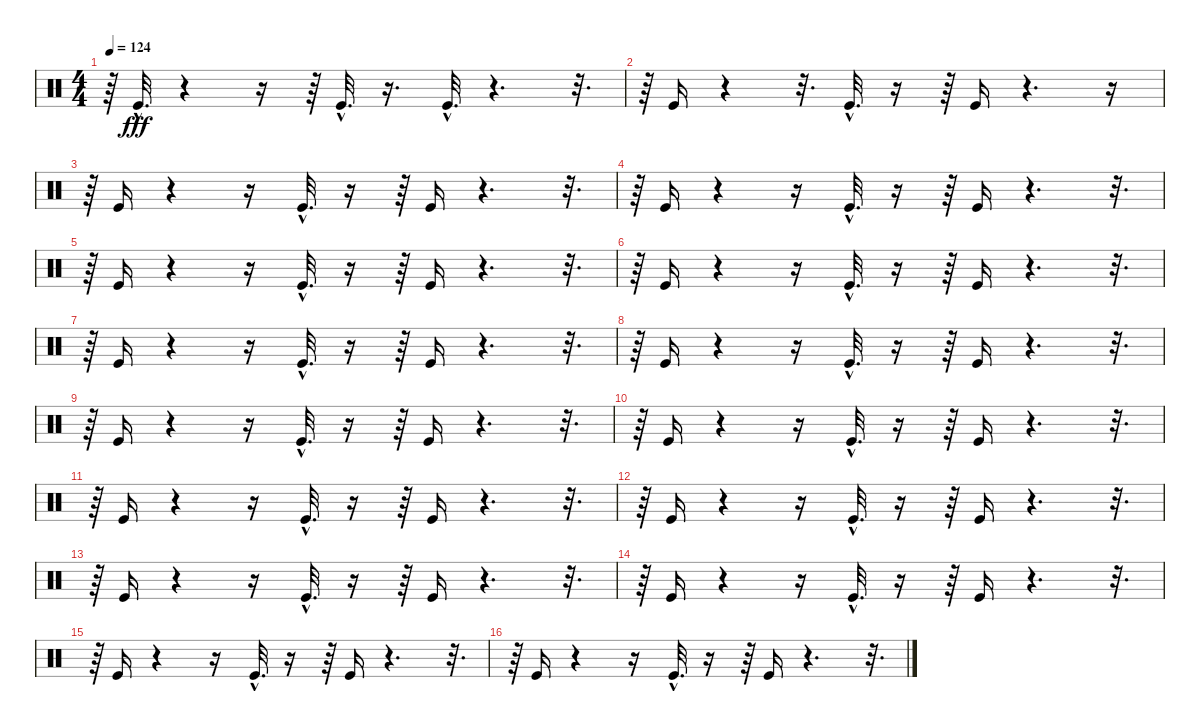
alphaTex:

\track "" {instrument percussion}
\staff {score}
\articulation defaults
\ts (4 4)
\tempo 124
\clef neutral
\ks c
r.64{dy fff} "Kick (hit)"{hac}.32{d} r.4 r.16 r.64 "Kick (hit)"{hac}.32{d} r.16{d} "Kick (hit)"{hac}.32{d} r.4{d} r.32{d} |
r.64 "Kick (hit)".16 r.4 r.32{d} "Kick (hit)"{hac}.32{d} r.16 r.64 "Kick (hit)".16 r.4{d} r.16 |
r.64 "Kick (hit)".16 r.4 r.16 "Kick (hit)"{hac}.32{d} r.16 r.64 "Kick (hit)".16 r.4{d} r.32{d} |
r.64 "Kick (hit)".16 r.4 r.16 "Kick (hit)"{hac}.32{d} r.16 r.64 "Kick (hit)".16 r.4{d} r.32{d} |
r.64 "Kick (hit)".16 r.4 r.16 "Kick (hit)"{hac}.32{d} r.16 r.64 "Kick (hit)".16 r.4{d} r.32{d} |
r.64 "Kick (hit)".16 r.4 r.16 "Kick (hit)"{hac}.32{d} r.16 r.64 "Kick (hit)".16 r.4{d} r.32{d} |
r.64 "Kick (hit)".16 r.4 r.16 "Kick (hit)"{hac}.32{d} r.16 r.64 "Kick (hit)".16 r.4{d} r.32{d} |
r.64 "Kick (hit)".16 r.4 r.16 "Kick (hit)"{hac}.32{d} r.16 r.64 "Kick (hit)".16 r.4{d} r.32{d} |
r.64 "Kick (hit)".16 r.4 r.16 "Kick (hit)"{hac}.32{d} r.16 r.64 "Kick (hit)".16 r.4{d} r.32{d} |
r.64 "Kick (hit)".16 r.4 r.16 "Kick (hit)"{hac}.32{d} r.16 r.64 "Kick (hit)".16 r.4{d} r.32{d} |
r.64 "Kick (hit)".16 r.4 r.16 "Kick (hit)"{hac}.32{d} r.16 r.64 "Kick (hit)".16 r.4{d} r.32{d} |
r.64 "Kick (hit)".16 r.4 r.16 "Kick (hit)"{hac}.32{d} r.16 r.64 "Kick (hit)".16 r.4{d} r.32{d} |
r.64 "Kick (hit)".16 r.4 r.16 "Kick (hit)"{hac}.32{d} r.16 r.64 "Kick (hit)".16 r.4{d} r.32{d} |
r.64 "Kick (hit)".16 r.4 r.16 "Kick (hit)"{hac}.32{d} r.16 r.64 "Kick (hit)".16 r.4{d} r.32{d} |
r.64 "Kick (hit)".16 r.4 r.16 "Kick (hit)"{hac}.32{d} r.16 r.64 "Kick (hit)".16 r.4{d} r.32{d} |
r.64 "Kick (hit)".16 r.4 r.16 "Kick (hit)"{hac}.32{d} r.16 r.64 "Kick (hit)".16 r.4{d} r.32{d}
